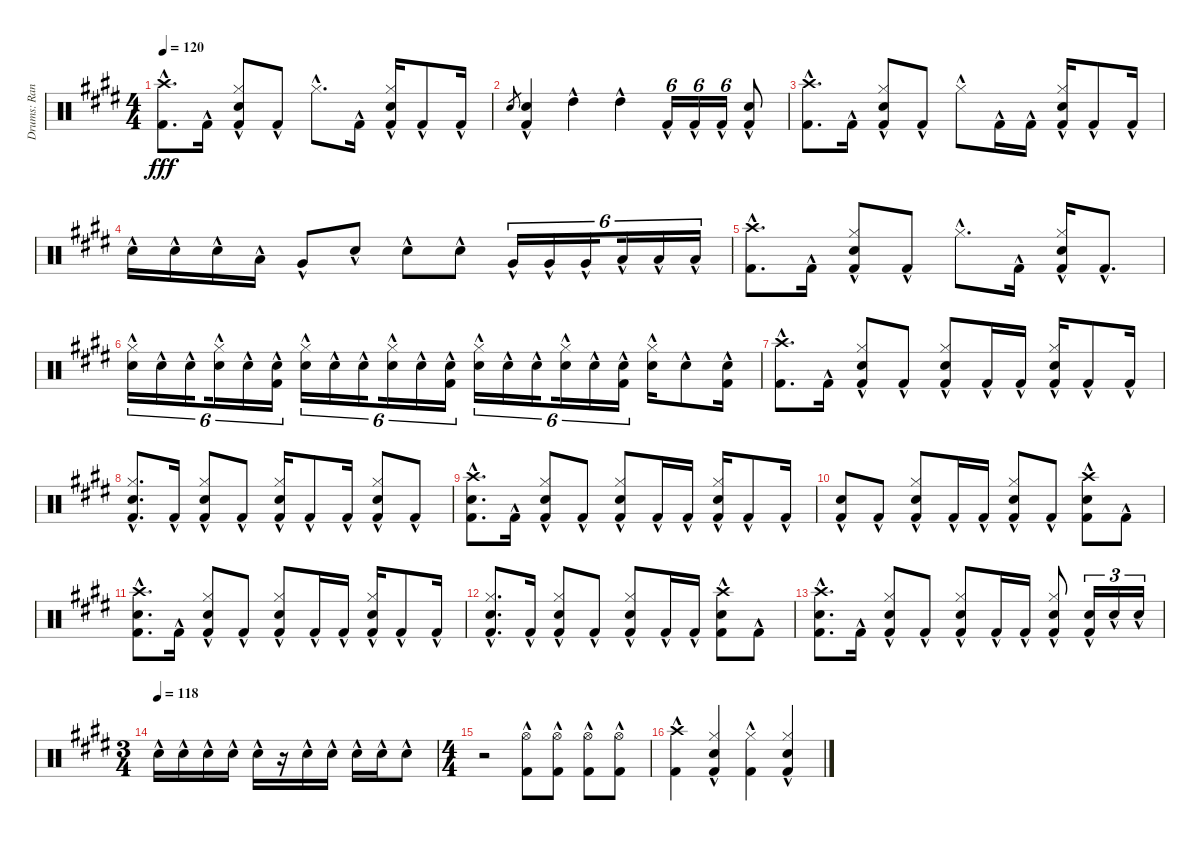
\track ("Drums: Randy" "Drums: Ran") {instrument percussion}
\staff {score}
\articulation defaults
\ts (4 4)
\tempo 120
\clef neutral
\ks e
("Crash high (hit)"{hac} "Kick (hit) 2"{hac}).8{d dy fff} "Kick (hit) 2"{hac}.16 ("Hi-Hat (closed)"{hac} "Snare (hit) 2"{hac} "Kick (hit) 2"{hac}).8 "Kick (hit) 2"{hac}.8 "Hi-Hat (closed)"{hac}.8{d} "Kick (hit) 2"{hac}.16 ("Hi-Hat (closed)"{hac} "Snare (hit) 2"{hac} "Kick (hit) 2"{hac}).16 "Kick (hit) 2"{hac}.8 "Kick (hit) 2"{hac}.16 |
"Snare (hit) 2".8{gr} ("Snare (hit) 2"{hac} "Kick (hit) 2"{hac}).4 "High Tom (hit)"{hac}.4 "High Tom (hit)"{hac}.4 "Kick (hit) 2"{hac}.16{tu (6 4)} "Kick (hit) 2"{hac}.16{tu (6 4)} "Kick (hit) 2"{hac}.16{tu (6 4)} ("Snare (hit) 2"{hac} "Kick (hit) 2"{hac}).8 |
("Crash high (hit)"{hac} "Kick (hit) 2"{hac}).8{d} "Kick (hit) 2"{hac}.16 ("Hi-Hat (closed)"{hac} "Snare (hit) 2"{hac} "Kick (hit) 2"{hac}).8 "Kick (hit) 2"{hac}.8 "Hi-Hat (closed)"{hac}.8 "Kick (hit) 2"{hac}.16 "Kick (hit) 2"{hac}.16 ("Hi-Hat (closed)"{hac} "Snare (hit) 2"{hac} "Kick (hit) 2"{hac}).16 "Kick (hit) 2"{hac}.8 "Kick (hit) 2"{hac}.16 |
"Snare (hit) 2"{hac}.16 "Snare (hit) 2"{hac}.16 "Snare (hit) 2"{hac}.16 "Low Tom (hit)"{hac}.16 "Very Low Tom (hit)"{hac}.8 "Snare (hit) 2"{hac}.8 "Snare (hit) 2"{hac}.8 "Snare (hit) 2"{hac}.8 "Very Low Tom (hit)"{hac}.16{tu (6 4)} "Very Low Tom (hit)"{hac}.16{tu (6 4)} "Very Low Tom (hit)"{hac}.16{tu (6 4) beam splitsecondary} "Low Floor Tom (hit)"{hac}.16{tu (6 4)} "Low Floor Tom (hit)"{hac}.16{tu (6 4)} "Low Floor Tom (hit)"{hac}.16{tu (6 4)} |
("Crash high (hit)"{hac} "Kick (hit) 2"{hac}).8{d} "Kick (hit) 2"{hac}.16 ("Hi-Hat (closed)"{hac} "Snare (hit) 2"{hac} "Kick (hit) 2"{hac}).8 "Kick (hit) 2"{hac}.8 "Hi-Hat (closed)"{hac}.8{d} "Kick (hit) 2"{hac}.16 ("Hi-Hat (closed)"{hac} "Snare (hit) 2"{hac} "Kick (hit) 2"{hac}).16 "Kick (hit) 2"{hac}.8{d} |
("Hi-Hat (closed)"{hac} "Snare (hit) 2"{hac}).16{tu (6 4)} "Snare (hit) 2"{hac}.16{tu (6 4)} "Snare (hit) 2"{hac}.16{tu (6 4) beam splitsecondary} ("Hi-Hat (closed)"{hac} "Snare (hit) 2"{hac}).16{tu (6 4)} "Snare (hit) 2"{hac}.16{tu (6 4)} ("Snare (hit) 2"{hac} "Kick (hit) 2"{hac}).16{tu (6 4)} ("Hi-Hat (closed)"{hac} "Snare (hit) 2"{hac}).16{tu (6 4)} "Snare (hit) 2"{hac}.16{tu (6 4)} "Snare (hit) 2"{hac}.16{tu (6 4) beam splitsecondary} ("Hi-Hat (closed)"{hac} "Snare (hit) 2"{hac}).16{tu (6 4)} "Snare (hit) 2"{hac}.16{tu (6 4)} ("Snare (hit) 2"{hac} "Kick (hit) 2"{hac}).16{tu (6 4)} ("Hi-Hat (closed)"{hac} "Snare (hit) 2"{hac}).16{tu (6 4)} "Snare (hit) 2"{hac}.16{tu (6 4)} "Snare (hit) 2"{hac}.16{tu (6 4) beam splitsecondary} ("Hi-Hat (closed)"{hac} "Snare (hit) 2"{hac}).16{tu (6 4)} "Snare (hit) 2"{hac}.16{tu (6 4)} ("Snare (hit) 2"{hac} "Kick (hit) 2"{hac}).16{tu (6 4)} ("Hi-Hat (closed)"{hac} "Snare (hit) 2"{hac}).16 "Snare (hit) 2"{hac}.8 ("Snare (hit) 2"{hac} "Kick (hit) 2"{hac}).16 |
("Crash high (hit)"{hac} "Kick (hit) 2"{hac}).8{d} "Kick (hit) 2"{hac}.16 ("Hi-Hat (closed)"{hac} "Snare (hit) 2"{hac} "Kick (hit) 2"{hac}).8 "Kick (hit) 2"{hac}.8 ("Hi-Hat (closed)"{hac} "Snare (hit) 2"{hac} "Kick (hit) 2"{hac}).8 "Kick (hit) 2"{hac}.16 "Kick (hit) 2"{hac}.16 ("Hi-Hat (closed)"{hac} "Snare (hit) 2"{hac} "Kick (hit) 2"{hac}).16 "Kick (hit) 2"{hac}.8 "Kick (hit) 2"{hac}.16 |
("Hi-Hat (closed)"{hac} "Snare (hit) 2"{hac} "Kick (hit) 2"{hac}).8{d} "Kick (hit) 2"{hac}.16 ("Hi-Hat (closed)"{hac} "Snare (hit) 2"{hac} "Kick (hit) 2"{hac}).8 "Kick (hit) 2"{hac}.8 ("Hi-Hat (closed)"{hac} "Snare (hit) 2"{hac} "Kick (hit) 2"{hac}).16 "Kick (hit) 2"{hac}.8 "Kick (hit) 2"{hac}.16 ("Hi-Hat (closed)"{hac} "Snare (hit) 2"{hac} "Kick (hit) 2"{hac}).8 "Kick (hit) 2"{hac}.8 |
("Crash high (hit)"{hac} "Snare (hit) 2"{hac} "Kick (hit) 2"{hac}).8{d} "Kick (hit) 2"{hac}.16 ("Hi-Hat (closed)"{hac} "Snare (hit) 2"{hac} "Kick (hit) 2"{hac}).8 "Kick (hit) 2"{hac}.8 ("Hi-Hat (closed)"{hac} "Snare (hit) 2"{hac} "Kick (hit) 2"{hac}).8 "Kick (hit) 2"{hac}.16 "Kick (hit) 2"{hac}.16 ("Hi-Hat (closed)"{hac} "Snare (hit) 2"{hac} "Kick (hit) 2"{hac}).16 "Kick (hit) 2"{hac}.8 "Kick (hit) 2"{hac}.16 |
("Snare (hit) 2"{hac} "Kick (hit) 2"{hac}).8 "Kick (hit) 2"{hac}.8 ("Hi-Hat (closed)"{hac} "Snare (hit) 2"{hac} "Kick (hit) 2"{hac}).8 "Kick (hit) 2"{hac}.16 "Kick (hit) 2"{hac}.16 ("Hi-Hat (closed)"{hac} "Snare (hit) 2"{hac} "Kick (hit) 2"{hac}).8 "Kick (hit) 2"{hac}.8 ("Crash high (hit)"{hac} "Snare (hit) 2"{hac} "Kick (hit) 2"{hac}).8 "Kick (hit) 2"{hac}.8 |
("Crash high (hit)"{hac} "Snare (hit) 2"{hac} "Kick (hit) 2"{hac}).8{d} "Kick (hit) 2"{hac}.16 ("Hi-Hat (closed)"{hac} "Snare (hit) 2"{hac} "Kick (hit) 2"{hac}).8 "Kick (hit) 2"{hac}.8 ("Hi-Hat (closed)"{hac} "Snare (hit) 2"{hac} "Kick (hit) 2"{hac}).8 "Kick (hit) 2"{hac}.16 "Kick (hit) 2"{hac}.16 ("Hi-Hat (closed)"{hac} "Snare (hit) 2"{hac} "Kick (hit) 2"{hac}).16 "Kick (hit) 2"{hac}.8 "Kick (hit) 2"{hac}.16 |
("Hi-Hat (closed)"{hac} "Snare (hit) 2"{hac} "Kick (hit) 2"{hac}).8{d} "Kick (hit) 2"{hac}.16 ("Hi-Hat (closed)"{hac} "Snare (hit) 2"{hac} "Kick (hit) 2"{hac}).8 "Kick (hit) 2"{hac}.8 ("Hi-Hat (closed)"{hac} "Snare (hit) 2"{hac} "Kick (hit) 2"{hac}).8 "Kick (hit) 2"{hac}.16 "Kick (hit) 2"{hac}.16 ("Crash high (hit)"{hac} "Snare (hit) 2"{hac} "Kick (hit) 2"{hac}).8 "Kick (hit) 2"{hac}.8 |
("Crash high (hit)"{hac} "Snare (hit) 2"{hac} "Kick (hit) 2"{hac}).8{d} "Kick (hit) 2"{hac}.16 ("Hi-Hat (closed)"{hac} "Snare (hit) 2"{hac} "Kick (hit) 2"{hac}).8 "Kick (hit) 2"{hac}.8 ("Hi-Hat (closed)"{hac} "Snare (hit) 2"{hac} "Kick (hit) 2"{hac}).8 "Kick (hit) 2"{hac}.16 "Kick (hit) 2"{hac}.16 ("Hi-Hat (closed)"{hac} "Snare (hit) 2"{hac} "Kick (hit) 2"{hac}).8 ("Snare (hit) 2"{hac} "Kick (hit) 2"{hac}).16{tu (3 2)} "Snare (hit) 2"{hac}.16{tu (3 2)} "Snare (hit) 2"{hac}.16{tu (3 2)} |
\ts (3 4)
\tempo (118)
"Snare (hit) 2"{hac}.16 "Snare (hit) 2"{hac}.16 "Snare (hit) 2"{hac}.16 "Snare (hit) 2"{hac}.16 "Snare (hit) 2"{hac}.16 r.16 "Snare (hit) 2"{hac}.16 "Snare (hit) 2"{hac}.16 "Snare (hit) 2"{hac}.16 "Snare (hit) 2"{hac}.16 "Snare (hit) 2"{hac}.8 |
\ts (4 4)
r.2 ("Hi-Hat (open)"{hac} "Kick (hit) 2"{hac}).8 ("Hi-Hat (open)"{hac} "Kick (hit) 2"{hac}).8 ("Hi-Hat (open)"{hac} "Kick (hit) 2"{hac}).8 ("Hi-Hat (open)"{hac} "Kick (hit) 2"{hac}).8 |
("Crash high (hit)"{hac} "Kick (hit) 2"{hac}).4 ("Hi-Hat (closed)"{hac} "Snare (hit) 2"{hac} "Kick (hit) 2"{hac}).4 ("Hi-Hat (closed)"{hac} "Kick (hit) 2"{hac}).4 ("Hi-Hat (closed)"{hac} "Snare (hit) 2"{hac} "Kick (hit) 2"{hac}).4
